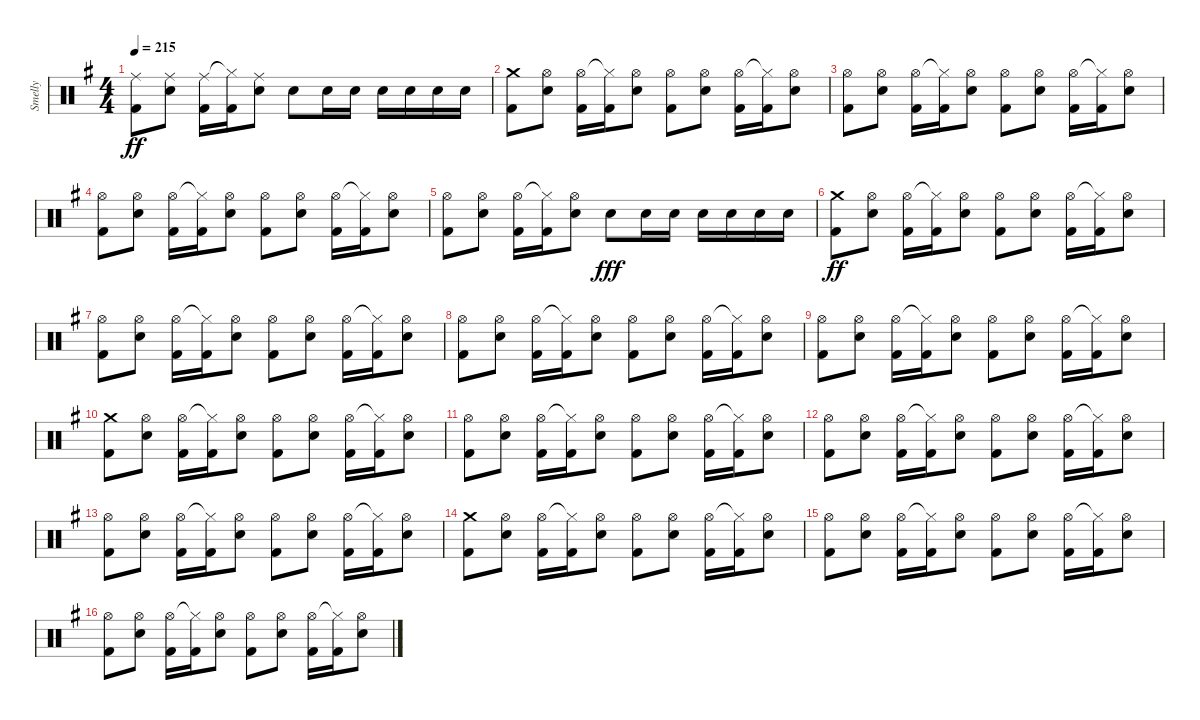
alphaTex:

\track ("Smelly" "Smelly") {instrument percussion}
\staff {score}
\articulation defaults
\ts (4 4)
\tempo 215
\clef neutral
\ks eminor
("Ride (middle)" "Kick (hit) 2").8{dy ff} ("Ride (middle)" "Electric Snare (hit)").8 ("Ride (middle)" "Kick (hit) 2").16 ("Hi-Hat (closed)"{t} "Kick (hit) 2").16 ("Ride (middle)" "Electric Snare (hit)").8 "Electric Snare (hit)".8 "Electric Snare (hit)".16 "Electric Snare (hit)".16 "Electric Snare (hit)".16 "Electric Snare (hit)".16 "Electric Snare (hit)".16 "Electric Snare (hit)".16 |
("Crash medium (hit)" "Kick (hit) 2").8 ("Hi-Hat (open)" "Electric Snare (hit)").8 ("Hi-Hat (open)" "Kick (hit) 2").16 ("Hi-Hat (closed)"{t} "Kick (hit) 2").16 ("Hi-Hat (open)" "Electric Snare (hit)").8 ("Hi-Hat (open)" "Kick (hit) 2").8 ("Hi-Hat (open)" "Electric Snare (hit)").8 ("Hi-Hat (open)" "Kick (hit) 2").16 ("Hi-Hat (closed)"{t} "Kick (hit) 2").16 ("Hi-Hat (open)" "Electric Snare (hit)").8 |
("Hi-Hat (open)" "Kick (hit) 2").8 ("Hi-Hat (open)" "Electric Snare (hit)").8 ("Hi-Hat (open)" "Kick (hit) 2").16 ("Hi-Hat (closed)"{t} "Kick (hit) 2").16 ("Hi-Hat (open)" "Electric Snare (hit)").8 ("Hi-Hat (open)" "Kick (hit) 2").8 ("Hi-Hat (open)" "Electric Snare (hit)").8 ("Hi-Hat (open)" "Kick (hit) 2").16 ("Hi-Hat (closed)"{t} "Kick (hit) 2").16 ("Hi-Hat (open)" "Electric Snare (hit)").8 |
("Hi-Hat (open)" "Kick (hit) 2").8 ("Hi-Hat (open)" "Electric Snare (hit)").8 ("Hi-Hat (open)" "Kick (hit) 2").16 ("Hi-Hat (closed)"{t} "Kick (hit) 2").16 ("Hi-Hat (open)" "Electric Snare (hit)").8 ("Hi-Hat (open)" "Kick (hit) 2").8 ("Hi-Hat (open)" "Electric Snare (hit)").8 ("Hi-Hat (open)" "Kick (hit) 2").16 ("Hi-Hat (closed)"{t} "Kick (hit) 2").16 ("Hi-Hat (open)" "Electric Snare (hit)").8 |
("Hi-Hat (open)" "Kick (hit) 2").8 ("Hi-Hat (open)" "Electric Snare (hit)").8 ("Hi-Hat (open)" "Kick (hit) 2").16 ("Hi-Hat (closed)"{t} "Kick (hit) 2").16 ("Hi-Hat (open)" "Electric Snare (hit)").8 "Electric Snare (hit)".8{dy fff} "Electric Snare (hit)".16 "Electric Snare (hit)".16 "Electric Snare (hit)".16 "Electric Snare (hit)".16 "Electric Snare (hit)".16 "Electric Snare (hit)".16 |
("Crash medium (hit)" "Kick (hit) 2").8{dy ff} ("Hi-Hat (open)" "Electric Snare (hit)").8 ("Hi-Hat (open)" "Kick (hit) 2").16 ("Hi-Hat (closed)"{t} "Kick (hit) 2").16 ("Hi-Hat (open)" "Electric Snare (hit)").8 ("Hi-Hat (open)" "Kick (hit) 2").8 ("Hi-Hat (open)" "Electric Snare (hit)").8 ("Hi-Hat (open)" "Kick (hit) 2").16 ("Hi-Hat (closed)"{t} "Kick (hit) 2").16 ("Hi-Hat (open)" "Electric Snare (hit)").8 |
("Hi-Hat (open)" "Kick (hit) 2").8 ("Hi-Hat (open)" "Electric Snare (hit)").8 ("Hi-Hat (open)" "Kick (hit) 2").16 ("Hi-Hat (closed)"{t} "Kick (hit) 2").16 ("Hi-Hat (open)" "Electric Snare (hit)").8 ("Hi-Hat (open)" "Kick (hit) 2").8 ("Hi-Hat (open)" "Electric Snare (hit)").8 ("Hi-Hat (open)" "Kick (hit) 2").16 ("Hi-Hat (closed)"{t} "Kick (hit) 2").16 ("Hi-Hat (open)" "Electric Snare (hit)").8 |
("Hi-Hat (open)" "Kick (hit) 2").8 ("Hi-Hat (open)" "Electric Snare (hit)").8 ("Hi-Hat (open)" "Kick (hit) 2").16 ("Hi-Hat (closed)"{t} "Kick (hit) 2").16 ("Hi-Hat (open)" "Electric Snare (hit)").8 ("Hi-Hat (open)" "Kick (hit) 2").8 ("Hi-Hat (open)" "Electric Snare (hit)").8 ("Hi-Hat (open)" "Kick (hit) 2").16 ("Hi-Hat (closed)"{t} "Kick (hit) 2").16 ("Hi-Hat (open)" "Electric Snare (hit)").8 |
("Hi-Hat (open)" "Kick (hit) 2").8 ("Hi-Hat (open)" "Electric Snare (hit)").8 ("Hi-Hat (open)" "Kick (hit) 2").16 ("Hi-Hat (closed)"{t} "Kick (hit) 2").16 ("Hi-Hat (open)" "Electric Snare (hit)").8 ("Hi-Hat (open)" "Kick (hit) 2").8 ("Hi-Hat (open)" "Electric Snare (hit)").8 ("Hi-Hat (open)" "Kick (hit) 2").16 ("Hi-Hat (closed)"{t} "Kick (hit) 2").16 ("Hi-Hat (open)" "Electric Snare (hit)").8 |
("Crash medium (hit)" "Kick (hit) 2").8 ("Hi-Hat (open)" "Electric Snare (hit)").8 ("Hi-Hat (open)" "Kick (hit) 2").16 ("Hi-Hat (closed)"{t} "Kick (hit) 2").16 ("Hi-Hat (open)" "Electric Snare (hit)").8 ("Hi-Hat (open)" "Kick (hit) 2").8 ("Hi-Hat (open)" "Electric Snare (hit)").8 ("Hi-Hat (open)" "Kick (hit) 2").16 ("Hi-Hat (closed)"{t} "Kick (hit) 2").16 ("Hi-Hat (open)" "Electric Snare (hit)").8 |
("Hi-Hat (open)" "Kick (hit) 2").8 ("Hi-Hat (open)" "Electric Snare (hit)").8 ("Hi-Hat (open)" "Kick (hit) 2").16 ("Hi-Hat (closed)"{t} "Kick (hit) 2").16 ("Hi-Hat (open)" "Electric Snare (hit)").8 ("Hi-Hat (open)" "Kick (hit) 2").8 ("Hi-Hat (open)" "Electric Snare (hit)").8 ("Hi-Hat (open)" "Kick (hit) 2").16 ("Hi-Hat (closed)"{t} "Kick (hit) 2").16 ("Hi-Hat (open)" "Electric Snare (hit)").8 |
("Hi-Hat (open)" "Kick (hit) 2").8 ("Hi-Hat (open)" "Electric Snare (hit)").8 ("Hi-Hat (open)" "Kick (hit) 2").16 ("Hi-Hat (closed)"{t} "Kick (hit) 2").16 ("Hi-Hat (open)" "Electric Snare (hit)").8 ("Hi-Hat (open)" "Kick (hit) 2").8 ("Hi-Hat (open)" "Electric Snare (hit)").8 ("Hi-Hat (open)" "Kick (hit) 2").16 ("Hi-Hat (closed)"{t} "Kick (hit) 2").16 ("Hi-Hat (open)" "Electric Snare (hit)").8 |
("Hi-Hat (open)" "Kick (hit) 2").8 ("Hi-Hat (open)" "Electric Snare (hit)").8 ("Hi-Hat (open)" "Kick (hit) 2").16 ("Hi-Hat (closed)"{t} "Kick (hit) 2").16 ("Hi-Hat (open)" "Electric Snare (hit)").8 ("Hi-Hat (open)" "Kick (hit) 2").8 ("Hi-Hat (open)" "Electric Snare (hit)").8 ("Hi-Hat (open)" "Kick (hit) 2").16 ("Hi-Hat (closed)"{t} "Kick (hit) 2").16 ("Hi-Hat (open)" "Electric Snare (hit)").8 |
("Crash medium (hit)" "Kick (hit) 2").8 ("Hi-Hat (open)" "Electric Snare (hit)").8 ("Hi-Hat (open)" "Kick (hit) 2").16 ("Hi-Hat (closed)"{t} "Kick (hit) 2").16 ("Hi-Hat (open)" "Electric Snare (hit)").8 ("Hi-Hat (open)" "Kick (hit) 2").8 ("Hi-Hat (open)" "Electric Snare (hit)").8 ("Hi-Hat (open)" "Kick (hit) 2").16 ("Hi-Hat (closed)"{t} "Kick (hit) 2").16 ("Hi-Hat (open)" "Electric Snare (hit)").8 |
("Hi-Hat (open)" "Kick (hit) 2").8 ("Hi-Hat (open)" "Electric Snare (hit)").8 ("Hi-Hat (open)" "Kick (hit) 2").16 ("Hi-Hat (closed)"{t} "Kick (hit) 2").16 ("Hi-Hat (open)" "Electric Snare (hit)").8 ("Hi-Hat (open)" "Kick (hit) 2").8 ("Hi-Hat (open)" "Electric Snare (hit)").8 ("Hi-Hat (open)" "Kick (hit) 2").16 ("Hi-Hat (closed)"{t} "Kick (hit) 2").16 ("Hi-Hat (open)" "Electric Snare (hit)").8 |
("Hi-Hat (open)" "Kick (hit) 2").8 ("Hi-Hat (open)" "Electric Snare (hit)").8 ("Hi-Hat (open)" "Kick (hit) 2").16 ("Hi-Hat (closed)"{t} "Kick (hit) 2").16 ("Hi-Hat (open)" "Electric Snare (hit)").8 ("Hi-Hat (open)" "Kick (hit) 2").8 ("Hi-Hat (open)" "Electric Snare (hit)").8 ("Hi-Hat (open)" "Kick (hit) 2").16 ("Hi-Hat (closed)"{t} "Kick (hit) 2").16 ("Hi-Hat (open)" "Electric Snare (hit)").8
